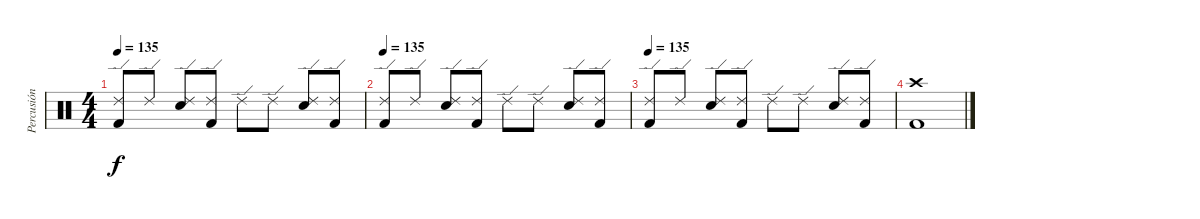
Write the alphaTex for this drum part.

\track ("Percusión" "Percusión") {instrument percussion}
\staff {score}
\articulation defaults
\ts (4 4)
\tempo 135
\clef neutral
\ks c
("Kick (hit) 2" "Ride (edge) 2").8{dy f} "Ride (edge) 2".8 ("Ride (edge) 2" "Electric Snare (hit)").8 ("Kick (hit) 2" "Ride (edge) 2").8 "Ride (edge) 2".8 "Ride (edge) 2".8 ("Ride (edge) 2" "Electric Snare (hit)").8 ("Kick (hit) 2" "Ride (edge) 2").8 |
\tempo 135
("Kick (hit) 2" "Ride (edge) 2").8 "Ride (edge) 2".8 ("Ride (edge) 2" "Electric Snare (hit)").8 ("Kick (hit) 2" "Ride (edge) 2").8 "Ride (edge) 2".8 "Ride (edge) 2".8 ("Ride (edge) 2" "Electric Snare (hit)").8 ("Kick (hit) 2" "Ride (edge) 2").8 |
\tempo 135
("Kick (hit) 2" "Ride (edge) 2").8 "Ride (edge) 2".8 ("Ride (edge) 2" "Electric Snare (hit)").8 ("Kick (hit) 2" "Ride (edge) 2").8 "Ride (edge) 2".8 "Ride (edge) 2".8 ("Ride (edge) 2" "Electric Snare (hit)").8 ("Kick (hit) 2" "Ride (edge) 2").8 |
("Kick (hit) 2" "Crash high (hit)").1
